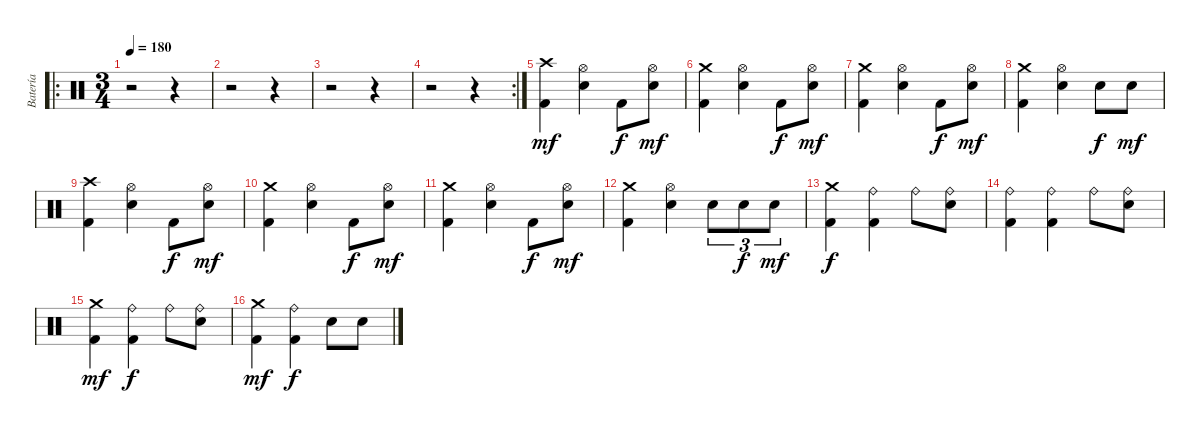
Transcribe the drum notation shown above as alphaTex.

\track ("Batería" "Batería") {instrument percussion}
\staff {score}
\articulation defaults
\ro
\ts (3 4)
\tempo 180
\clef neutral
\ks c
r.2{dy mf} r.4 |
r.2 r.4 |
r.2 r.4 |
\rc 2
r.2 r.4 |
("Crash high (hit)" "Kick (hit) 2").4 ("Hi-Hat (open)" "Snare (hit) 2").4 "Kick (hit) 2".8{dy f} ("Hi-Hat (open)" "Snare (hit) 2").8{dy mf} |
("Crash medium (hit)" "Kick (hit) 2").4 ("Hi-Hat (open)" "Snare (hit) 2").4 "Kick (hit) 2".8{dy f} ("Hi-Hat (open)" "Snare (hit) 2").8{dy mf} |
("Crash medium (hit)" "Kick (hit) 2").4 ("Hi-Hat (open)" "Snare (hit) 2").4 "Kick (hit) 2".8{dy f} ("Hi-Hat (open)" "Snare (hit) 2").8{dy mf} |
("Crash medium (hit)" "Kick (hit) 2").4 ("Hi-Hat (open)" "Snare (hit) 2").4 "Snare (hit) 2".8{dy f} "Snare (hit) 2".8{dy mf} |
("Crash high (hit)" "Kick (hit) 2").4 ("Hi-Hat (open)" "Snare (hit) 2").4 "Kick (hit) 2".8{dy f} ("Hi-Hat (open)" "Snare (hit) 2").8{dy mf} |
("Crash medium (hit)" "Kick (hit) 2").4 ("Hi-Hat (open)" "Snare (hit) 2").4 "Kick (hit) 2".8{dy f} ("Hi-Hat (open)" "Snare (hit) 2").8{dy mf} |
("Crash medium (hit)" "Kick (hit) 2").4 ("Hi-Hat (open)" "Snare (hit) 2").4 "Kick (hit) 2".8{dy f} ("Hi-Hat (open)" "Snare (hit) 2").8{dy mf} |
("Crash medium (hit)" "Kick (hit) 2").4 ("Hi-Hat (open)" "Snare (hit) 2").4 "Snare (hit) 2".8{tu (3 2)} "Snare (hit) 2".8{tu (3 2) dy f} "Snare (hit) 2".8{tu (3 2) dy mf} |
("Crash medium (hit)" "Kick (hit) 2").4{dy f} ("Ride (bell)" "Kick (hit) 2").4 "Ride (bell)".8 ("Ride (bell)" "Snare (hit) 2").8 |
("Ride (bell)" "Kick (hit) 2").4 ("Ride (bell)" "Kick (hit) 2").4 "Ride (bell)".8 ("Ride (bell)" "Snare (hit) 2").8 |
("Crash medium (hit)" "Kick (hit) 2").4{dy mf} ("Ride (bell)" "Kick (hit) 2").4{dy f} "Ride (bell)".8 ("Ride (bell)" "Snare (hit) 2").8 |
("Crash medium (hit)" "Kick (hit) 2").4{dy mf} ("Ride (bell)" "Kick (hit) 2").4{dy f} "Snare (hit) 2".8 "Snare (hit) 2".8
